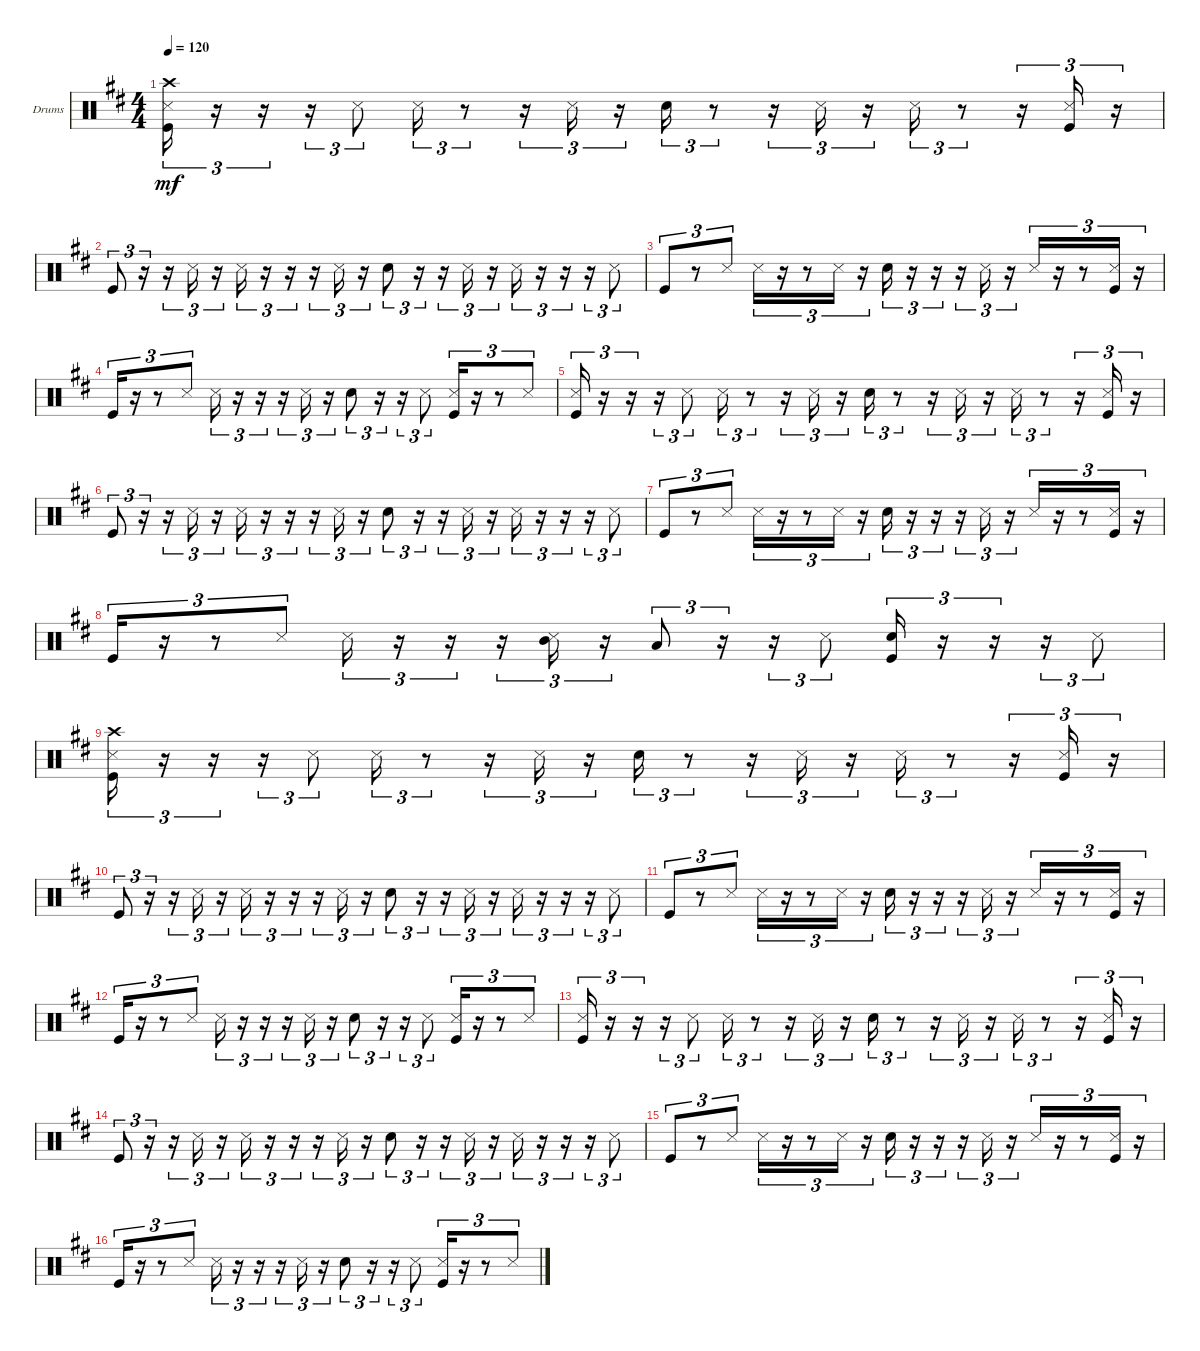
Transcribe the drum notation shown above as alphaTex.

\defaultSystemsLayout 4
\bracketExtendMode groupsimilarinstruments
\firstSystemTrackNameOrientation horizontal
\otherSystemsTrackNameOrientation horizontal
\track ("Drumkit" "Drums") {multiBarRest instrument percussion}
\staff {score}
\articulation defaults
\ts (4 4)
\tempo 120
\clef neutral
\ks d
("Crash high (hit)" "Kick (hit)" "Snare (side stick) 3").16{tu (3 2) dy mf} r.16{tu (3 2)} r.16{tu (3 2)} r.16{tu (3 2)} "Snare (side stick) 3".8{tu (3 2)} "Snare (side stick) 3".16{tu (3 2)} r.8{tu (3 2)} r.16{tu (3 2)} "Snare (side stick) 3".16{tu (3 2)} r.16{tu (3 2)} "Snare (hit) 2".16{tu (3 2)} r.8{tu (3 2)} r.16{tu (3 2)} "Snare (side stick) 3".16{tu (3 2)} r.16{tu (3 2)} "Snare (side stick) 3".16{tu (3 2)} r.8{tu (3 2)} r.16{tu (3 2)} ("Kick (hit)" "Snare (side stick) 3").16{tu (3 2)} r.16{tu (3 2)} |
"Kick (hit)".8{tu (3 2)} r.16{tu (3 2)} r.16{tu (3 2)} "Snare (side stick) 3".16{tu (3 2)} r.16{tu (3 2)} "Snare (side stick) 3".16{tu (3 2)} r.16{tu (3 2)} r.16{tu (3 2)} r.16{tu (3 2)} "Snare (side stick) 3".16{tu (3 2)} r.16{tu (3 2)} "Snare (hit) 2".8{tu (3 2)} r.16{tu (3 2)} r.16{tu (3 2)} "Snare (side stick) 3".16{tu (3 2)} r.16{tu (3 2)} "Snare (side stick) 3".16{tu (3 2)} r.16{tu (3 2)} r.16{tu (3 2)} r.16{tu (3 2)} "Snare (side stick) 3".8{tu (3 2)} |
"Kick (hit)".8{tu (3 2)} r.8{tu (3 2)} "Snare (side stick) 3".8{tu (3 2)} "Snare (side stick) 3".16{tu (3 2)} r.16{tu (3 2)} r.8{tu (3 2)} "Snare (side stick) 3".16{tu (3 2)} r.16{tu (3 2)} "Snare (hit) 2".16{tu (3 2)} r.16{tu (3 2)} r.16{tu (3 2)} r.16{tu (3 2)} "Snare (side stick) 3".16{tu (3 2)} r.16{tu (3 2)} "Snare (side stick) 3".16{tu (3 2)} r.16{tu (3 2)} r.8{tu (3 2)} ("Kick (hit)" "Snare (side stick) 3").16{tu (3 2)} r.16{tu (3 2)} |
"Kick (hit)".16{tu (3 2)} r.16{tu (3 2)} r.8{tu (3 2)} "Snare (side stick) 3".8{tu (3 2)} "Snare (side stick) 3".16{tu (3 2)} r.16{tu (3 2)} r.16{tu (3 2)} r.16{tu (3 2)} "Snare (side stick) 3".16{tu (3 2)} r.16{tu (3 2)} "Snare (hit) 2".8{tu (3 2)} r.16{tu (3 2)} r.16{tu (3 2)} "Snare (side stick) 3".8{tu (3 2)} ("Kick (hit)" "Snare (side stick) 3").16{tu (3 2)} r.16{tu (3 2)} r.8{tu (3 2)} "Snare (side stick) 3".8{tu (3 2)} |
("Kick (hit)" "Snare (side stick) 3").16{tu (3 2)} r.16{tu (3 2)} r.16{tu (3 2)} r.16{tu (3 2)} "Snare (side stick) 3".8{tu (3 2)} "Snare (side stick) 3".16{tu (3 2)} r.8{tu (3 2)} r.16{tu (3 2)} "Snare (side stick) 3".16{tu (3 2)} r.16{tu (3 2)} "Snare (hit) 2".16{tu (3 2)} r.8{tu (3 2)} r.16{tu (3 2)} "Snare (side stick) 3".16{tu (3 2)} r.16{tu (3 2)} "Snare (side stick) 3".16{tu (3 2)} r.8{tu (3 2)} r.16{tu (3 2)} ("Kick (hit)" "Snare (side stick) 3").16{tu (3 2)} r.16{tu (3 2)} |
"Kick (hit)".8{tu (3 2)} r.16{tu (3 2)} r.16{tu (3 2)} "Snare (side stick) 3".16{tu (3 2)} r.16{tu (3 2)} "Snare (side stick) 3".16{tu (3 2)} r.16{tu (3 2)} r.16{tu (3 2)} r.16{tu (3 2)} "Snare (side stick) 3".16{tu (3 2)} r.16{tu (3 2)} "Snare (hit) 2".8{tu (3 2)} r.16{tu (3 2)} r.16{tu (3 2)} "Snare (side stick) 3".16{tu (3 2)} r.16{tu (3 2)} "Snare (side stick) 3".16{tu (3 2)} r.16{tu (3 2)} r.16{tu (3 2)} r.16{tu (3 2)} "Snare (side stick) 3".8{tu (3 2)} |
"Kick (hit)".8{tu (3 2)} r.8{tu (3 2)} "Snare (side stick) 3".8{tu (3 2)} "Snare (side stick) 3".16{tu (3 2)} r.16{tu (3 2)} r.8{tu (3 2)} "Snare (side stick) 3".16{tu (3 2)} r.16{tu (3 2)} "Snare (hit) 2".16{tu (3 2)} r.16{tu (3 2)} r.16{tu (3 2)} r.16{tu (3 2)} "Snare (side stick) 3".16{tu (3 2)} r.16{tu (3 2)} "Snare (side stick) 3".16{tu (3 2)} r.16{tu (3 2)} r.8{tu (3 2)} ("Kick (hit)" "Snare (side stick) 3").16{tu (3 2)} r.16{tu (3 2)} |
"Kick (hit)".16{tu (3 2)} r.16{tu (3 2)} r.8{tu (3 2)} "Snare (side stick) 3".8{tu (3 2)} "Snare (side stick) 3".16{tu (3 2)} r.16{tu (3 2)} r.16{tu (3 2)} r.16{tu (3 2)} ("Mid Tom (hit)" "Snare (side stick) 3").16{tu (3 2)} r.16{tu (3 2)} "Low Tom (hit)".8{tu (3 2)} r.16{tu (3 2)} r.16{tu (3 2)} "Snare (side stick) 3".8{tu (3 2)} ("Snare (hit) 2" "Kick (hit)").16{tu (3 2)} r.16{tu (3 2)} r.16{tu (3 2)} r.16{tu (3 2)} "Snare (side stick) 3".8{tu (3 2)} |
("Crash high (hit)" "Kick (hit)" "Snare (side stick) 3").16{tu (3 2)} r.16{tu (3 2)} r.16{tu (3 2)} r.16{tu (3 2)} "Snare (side stick) 3".8{tu (3 2)} "Snare (side stick) 3".16{tu (3 2)} r.8{tu (3 2)} r.16{tu (3 2)} "Snare (side stick) 3".16{tu (3 2)} r.16{tu (3 2)} "Snare (hit) 2".16{tu (3 2)} r.8{tu (3 2)} r.16{tu (3 2)} "Snare (side stick) 3".16{tu (3 2)} r.16{tu (3 2)} "Snare (side stick) 3".16{tu (3 2)} r.8{tu (3 2)} r.16{tu (3 2)} ("Kick (hit)" "Snare (side stick) 3").16{tu (3 2)} r.16{tu (3 2)} |
"Kick (hit)".8{tu (3 2)} r.16{tu (3 2)} r.16{tu (3 2)} "Snare (side stick) 3".16{tu (3 2)} r.16{tu (3 2)} "Snare (side stick) 3".16{tu (3 2)} r.16{tu (3 2)} r.16{tu (3 2)} r.16{tu (3 2)} "Snare (side stick) 3".16{tu (3 2)} r.16{tu (3 2)} "Snare (hit) 2".8{tu (3 2)} r.16{tu (3 2)} r.16{tu (3 2)} "Snare (side stick) 3".16{tu (3 2)} r.16{tu (3 2)} "Snare (side stick) 3".16{tu (3 2)} r.16{tu (3 2)} r.16{tu (3 2)} r.16{tu (3 2)} "Snare (side stick) 3".8{tu (3 2)} |
"Kick (hit)".8{tu (3 2)} r.8{tu (3 2)} "Snare (side stick) 3".8{tu (3 2)} "Snare (side stick) 3".16{tu (3 2)} r.16{tu (3 2)} r.8{tu (3 2)} "Snare (side stick) 3".16{tu (3 2)} r.16{tu (3 2)} "Snare (hit) 2".16{tu (3 2)} r.16{tu (3 2)} r.16{tu (3 2)} r.16{tu (3 2)} "Snare (side stick) 3".16{tu (3 2)} r.16{tu (3 2)} "Snare (side stick) 3".16{tu (3 2)} r.16{tu (3 2)} r.8{tu (3 2)} ("Kick (hit)" "Snare (side stick) 3").16{tu (3 2)} r.16{tu (3 2)} |
"Kick (hit)".16{tu (3 2)} r.16{tu (3 2)} r.8{tu (3 2)} "Snare (side stick) 3".8{tu (3 2)} "Snare (side stick) 3".16{tu (3 2)} r.16{tu (3 2)} r.16{tu (3 2)} r.16{tu (3 2)} "Snare (side stick) 3".16{tu (3 2)} r.16{tu (3 2)} "Snare (hit) 2".8{tu (3 2)} r.16{tu (3 2)} r.16{tu (3 2)} "Snare (side stick) 3".8{tu (3 2)} ("Kick (hit)" "Snare (side stick) 3").16{tu (3 2)} r.16{tu (3 2)} r.8{tu (3 2)} "Snare (side stick) 3".8{tu (3 2)} |
("Kick (hit)" "Snare (side stick) 3").16{tu (3 2)} r.16{tu (3 2)} r.16{tu (3 2)} r.16{tu (3 2)} "Snare (side stick) 3".8{tu (3 2)} "Snare (side stick) 3".16{tu (3 2)} r.8{tu (3 2)} r.16{tu (3 2)} "Snare (side stick) 3".16{tu (3 2)} r.16{tu (3 2)} "Snare (hit) 2".16{tu (3 2)} r.8{tu (3 2)} r.16{tu (3 2)} "Snare (side stick) 3".16{tu (3 2)} r.16{tu (3 2)} "Snare (side stick) 3".16{tu (3 2)} r.8{tu (3 2)} r.16{tu (3 2)} ("Kick (hit)" "Snare (side stick) 3").16{tu (3 2)} r.16{tu (3 2)} |
"Kick (hit)".8{tu (3 2)} r.16{tu (3 2)} r.16{tu (3 2)} "Snare (side stick) 3".16{tu (3 2)} r.16{tu (3 2)} "Snare (side stick) 3".16{tu (3 2)} r.16{tu (3 2)} r.16{tu (3 2)} r.16{tu (3 2)} "Snare (side stick) 3".16{tu (3 2)} r.16{tu (3 2)} "Snare (hit) 2".8{tu (3 2)} r.16{tu (3 2)} r.16{tu (3 2)} "Snare (side stick) 3".16{tu (3 2)} r.16{tu (3 2)} "Snare (side stick) 3".16{tu (3 2)} r.16{tu (3 2)} r.16{tu (3 2)} r.16{tu (3 2)} "Snare (side stick) 3".8{tu (3 2)} |
"Kick (hit)".8{tu (3 2)} r.8{tu (3 2)} "Snare (side stick) 3".8{tu (3 2)} "Snare (side stick) 3".16{tu (3 2)} r.16{tu (3 2)} r.8{tu (3 2)} "Snare (side stick) 3".16{tu (3 2)} r.16{tu (3 2)} "Snare (hit) 2".16{tu (3 2)} r.16{tu (3 2)} r.16{tu (3 2)} r.16{tu (3 2)} "Snare (side stick) 3".16{tu (3 2)} r.16{tu (3 2)} "Snare (side stick) 3".16{tu (3 2)} r.16{tu (3 2)} r.8{tu (3 2)} ("Kick (hit)" "Snare (side stick) 3").16{tu (3 2)} r.16{tu (3 2)} |
"Kick (hit)".16{tu (3 2)} r.16{tu (3 2)} r.8{tu (3 2)} "Snare (side stick) 3".8{tu (3 2)} "Snare (side stick) 3".16{tu (3 2)} r.16{tu (3 2)} r.16{tu (3 2)} r.16{tu (3 2)} "Snare (side stick) 3".16{tu (3 2)} r.16{tu (3 2)} "Snare (hit) 2".8{tu (3 2)} r.16{tu (3 2)} r.16{tu (3 2)} "Snare (side stick) 3".8{tu (3 2)} ("Kick (hit)" "Snare (side stick) 3").16{tu (3 2)} r.16{tu (3 2)} r.8{tu (3 2)} "Snare (side stick) 3".8{tu (3 2)}
